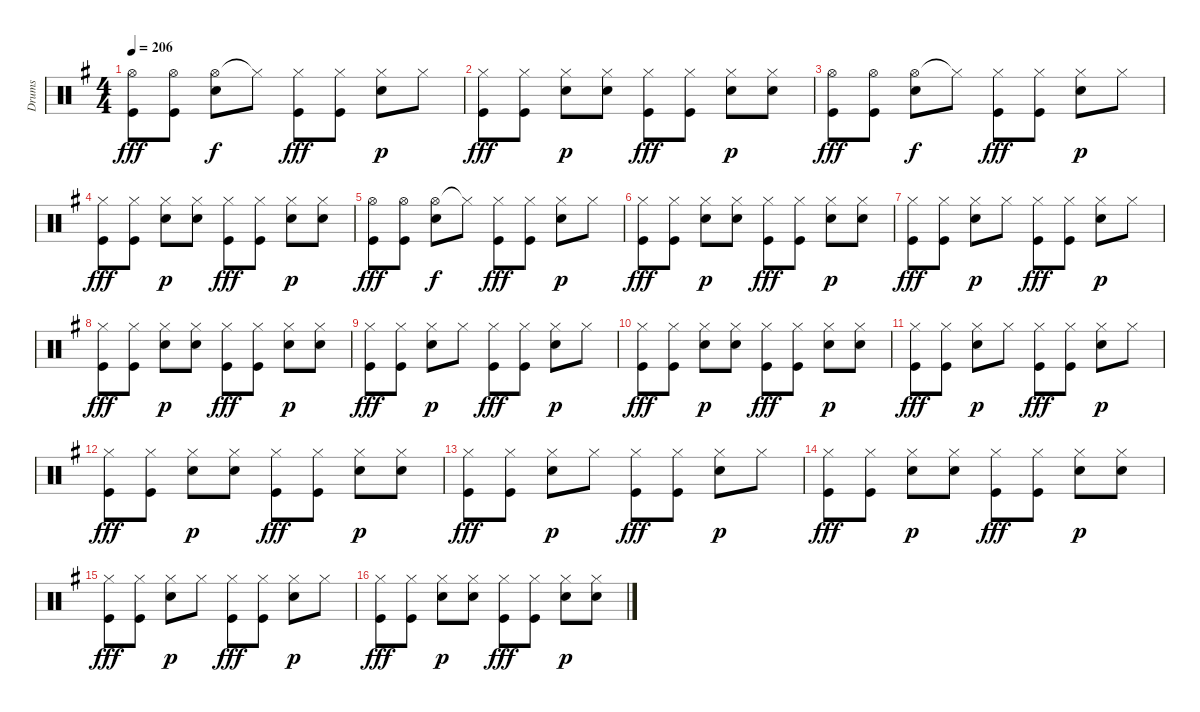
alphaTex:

\track ("Drums" "Drums") {instrument percussion}
\staff {score}
\articulation defaults
\ts (4 4)
\tempo 206
\clef neutral
\ks g
("Hi-Hat (open)" "Kick (hit)").8{dy fff} ("Hi-Hat (open)" "Kick (hit)").8 ("Hi-Hat (open)" "Snare (hit) 2").8{dy f} "Hi-Hat (closed)"{t}.8 ("Hi-Hat (closed)" "Kick (hit)").8{dy fff} ("Hi-Hat (closed)" "Kick (hit)").8 ("Hi-Hat (closed)" "Snare (hit) 2").8{dy p} "Hi-Hat (closed)".8 |
("Hi-Hat (closed)" "Kick (hit)").8{dy fff} ("Hi-Hat (closed)" "Kick (hit)").8 ("Hi-Hat (closed)" "Snare (hit) 2").8{dy p} ("Hi-Hat (closed)" "Snare (hit) 2").8 ("Hi-Hat (closed)" "Kick (hit)").8{dy fff} ("Hi-Hat (closed)" "Kick (hit)").8 ("Hi-Hat (closed)" "Snare (hit) 2").8{dy p} ("Hi-Hat (closed)" "Snare (hit) 2").8 |
("Hi-Hat (open)" "Kick (hit)").8{dy fff} ("Hi-Hat (open)" "Kick (hit)").8 ("Hi-Hat (open)" "Snare (hit) 2").8{dy f} "Hi-Hat (closed)"{t}.8 ("Hi-Hat (closed)" "Kick (hit)").8{dy fff} ("Hi-Hat (closed)" "Kick (hit)").8 ("Hi-Hat (closed)" "Snare (hit) 2").8{dy p} "Hi-Hat (closed)".8 |
("Hi-Hat (closed)" "Kick (hit)").8{dy fff} ("Hi-Hat (closed)" "Kick (hit)").8 ("Hi-Hat (closed)" "Snare (hit) 2").8{dy p} ("Hi-Hat (closed)" "Snare (hit) 2").8 ("Hi-Hat (closed)" "Kick (hit)").8{dy fff} ("Hi-Hat (closed)" "Kick (hit)").8 ("Hi-Hat (closed)" "Snare (hit) 2").8{dy p} ("Hi-Hat (closed)" "Snare (hit) 2").8 |
("Hi-Hat (open)" "Kick (hit)").8{dy fff} ("Hi-Hat (open)" "Kick (hit)").8 ("Hi-Hat (open)" "Snare (hit) 2").8{dy f} "Hi-Hat (closed)"{t}.8 ("Hi-Hat (closed)" "Kick (hit)").8{dy fff} ("Hi-Hat (closed)" "Kick (hit)").8 ("Hi-Hat (closed)" "Snare (hit) 2").8{dy p} "Hi-Hat (closed)".8 |
("Hi-Hat (closed)" "Kick (hit)").8{dy fff} ("Hi-Hat (closed)" "Kick (hit)").8 ("Hi-Hat (closed)" "Snare (hit) 2").8{dy p} ("Hi-Hat (closed)" "Snare (hit) 2").8 ("Hi-Hat (closed)" "Kick (hit)").8{dy fff} ("Hi-Hat (closed)" "Kick (hit)").8 ("Hi-Hat (closed)" "Snare (hit) 2").8{dy p} ("Hi-Hat (closed)" "Snare (hit) 2").8 |
("Hi-Hat (closed)" "Kick (hit)").8{dy fff} ("Hi-Hat (closed)" "Kick (hit)").8 ("Hi-Hat (closed)" "Snare (hit) 2").8{dy p} "Hi-Hat (closed)".8 ("Hi-Hat (closed)" "Kick (hit)").8{dy fff} ("Hi-Hat (closed)" "Kick (hit)").8 ("Hi-Hat (closed)" "Snare (hit) 2").8{dy p} "Hi-Hat (closed)".8 |
("Hi-Hat (closed)" "Kick (hit)").8{dy fff} ("Hi-Hat (closed)" "Kick (hit)").8 ("Hi-Hat (closed)" "Snare (hit) 2").8{dy p} ("Hi-Hat (closed)" "Snare (hit) 2").8 ("Hi-Hat (closed)" "Kick (hit)").8{dy fff} ("Hi-Hat (closed)" "Kick (hit)").8 ("Hi-Hat (closed)" "Snare (hit) 2").8{dy p} ("Hi-Hat (closed)" "Snare (hit) 2").8 |
("Hi-Hat (closed)" "Kick (hit)").8{dy fff} ("Hi-Hat (closed)" "Kick (hit)").8 ("Hi-Hat (closed)" "Snare (hit) 2").8{dy p} "Hi-Hat (closed)".8 ("Hi-Hat (closed)" "Kick (hit)").8{dy fff} ("Hi-Hat (closed)" "Kick (hit)").8 ("Hi-Hat (closed)" "Snare (hit) 2").8{dy p} "Hi-Hat (closed)".8 |
("Hi-Hat (closed)" "Kick (hit)").8{dy fff} ("Hi-Hat (closed)" "Kick (hit)").8 ("Hi-Hat (closed)" "Snare (hit) 2").8{dy p} ("Hi-Hat (closed)" "Snare (hit) 2").8 ("Hi-Hat (closed)" "Kick (hit)").8{dy fff} ("Hi-Hat (closed)" "Kick (hit)").8 ("Hi-Hat (closed)" "Snare (hit) 2").8{dy p} ("Hi-Hat (closed)" "Snare (hit) 2").8 |
("Hi-Hat (closed)" "Kick (hit)").8{dy fff} ("Hi-Hat (closed)" "Kick (hit)").8 ("Hi-Hat (closed)" "Snare (hit) 2").8{dy p} "Hi-Hat (closed)".8 ("Hi-Hat (closed)" "Kick (hit)").8{dy fff} ("Hi-Hat (closed)" "Kick (hit)").8 ("Hi-Hat (closed)" "Snare (hit) 2").8{dy p} "Hi-Hat (closed)".8 |
("Hi-Hat (closed)" "Kick (hit)").8{dy fff} ("Hi-Hat (closed)" "Kick (hit)").8 ("Hi-Hat (closed)" "Snare (hit) 2").8{dy p} ("Hi-Hat (closed)" "Snare (hit) 2").8 ("Hi-Hat (closed)" "Kick (hit)").8{dy fff} ("Hi-Hat (closed)" "Kick (hit)").8 ("Hi-Hat (closed)" "Snare (hit) 2").8{dy p} ("Hi-Hat (closed)" "Snare (hit) 2").8 |
("Hi-Hat (closed)" "Kick (hit)").8{dy fff} ("Hi-Hat (closed)" "Kick (hit)").8 ("Hi-Hat (closed)" "Snare (hit) 2").8{dy p} "Hi-Hat (closed)".8 ("Hi-Hat (closed)" "Kick (hit)").8{dy fff} ("Hi-Hat (closed)" "Kick (hit)").8 ("Hi-Hat (closed)" "Snare (hit) 2").8{dy p} "Hi-Hat (closed)".8 |
("Hi-Hat (closed)" "Kick (hit)").8{dy fff} ("Hi-Hat (closed)" "Kick (hit)").8 ("Hi-Hat (closed)" "Snare (hit) 2").8{dy p} ("Hi-Hat (closed)" "Snare (hit) 2").8 ("Hi-Hat (closed)" "Kick (hit)").8{dy fff} ("Hi-Hat (closed)" "Kick (hit)").8 ("Hi-Hat (closed)" "Snare (hit) 2").8{dy p} ("Hi-Hat (closed)" "Snare (hit) 2").8 |
("Hi-Hat (closed)" "Kick (hit)").8{dy fff} ("Hi-Hat (closed)" "Kick (hit)").8 ("Hi-Hat (closed)" "Snare (hit) 2").8{dy p} "Hi-Hat (closed)".8 ("Hi-Hat (closed)" "Kick (hit)").8{dy fff} ("Hi-Hat (closed)" "Kick (hit)").8 ("Hi-Hat (closed)" "Snare (hit) 2").8{dy p} "Hi-Hat (closed)".8 |
("Hi-Hat (closed)" "Kick (hit)").8{dy fff} ("Hi-Hat (closed)" "Kick (hit)").8 ("Hi-Hat (closed)" "Snare (hit) 2").8{dy p} ("Hi-Hat (closed)" "Snare (hit) 2").8 ("Hi-Hat (closed)" "Kick (hit)").8{dy fff} ("Hi-Hat (closed)" "Kick (hit)").8 ("Hi-Hat (closed)" "Snare (hit) 2").8{dy p} ("Hi-Hat (closed)" "Snare (hit) 2").8
